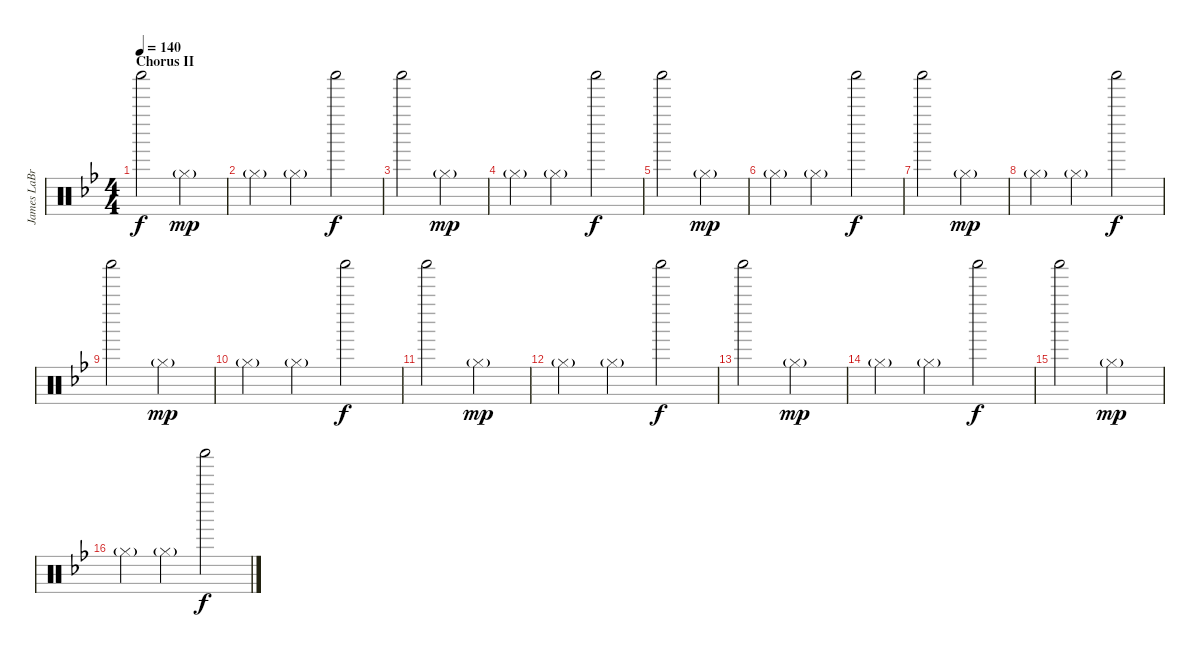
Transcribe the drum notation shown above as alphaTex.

\track ("James LaBrie Percussion" "James LaBr") {instrument percussion}
\staff {score}
\articulation defaults
\ts (4 4)
\section ("" "Chorus II")
\tempo 140
\clef neutral
\ks bb "Shaker (hit)".2{dy f} "Hi-Hat (closed)"{g}.2{dy mp}
|
"Hi-Hat (closed)"{g}.4 "Hi-Hat (closed)"{g}.4 "Shaker (hit)".2{dy f} |
"Shaker (hit)".2 "Hi-Hat (closed)"{g}.2{dy mp} |
"Hi-Hat (closed)"{g}.4 "Hi-Hat (closed)"{g}.4 "Shaker (hit)".2{dy f} |
"Shaker (hit)".2 "Hi-Hat (closed)"{g}.2{dy mp} |
"Hi-Hat (closed)"{g}.4 "Hi-Hat (closed)"{g}.4 "Shaker (hit)".2{dy f} |
"Shaker (hit)".2 "Hi-Hat (closed)"{g}.2{dy mp} |
"Hi-Hat (closed)"{g}.4 "Hi-Hat (closed)"{g}.4 "Shaker (hit)".2{dy f} |
"Shaker (hit)".2 "Hi-Hat (closed)"{g}.2{dy mp} |
"Hi-Hat (closed)"{g}.4 "Hi-Hat (closed)"{g}.4 "Shaker (hit)".2{dy f} |
"Shaker (hit)".2 "Hi-Hat (closed)"{g}.2{dy mp} |
"Hi-Hat (closed)"{g}.4 "Hi-Hat (closed)"{g}.4 "Shaker (hit)".2{dy f} |
"Shaker (hit)".2 "Hi-Hat (closed)"{g}.2{dy mp} |
"Hi-Hat (closed)"{g}.4 "Hi-Hat (closed)"{g}.4 "Shaker (hit)".2{dy f} |
"Shaker (hit)".2 "Hi-Hat (closed)"{g}.2{dy mp} |
"Hi-Hat (closed)"{g}.4 "Hi-Hat (closed)"{g}.4 "Shaker (hit)".2{dy f}
